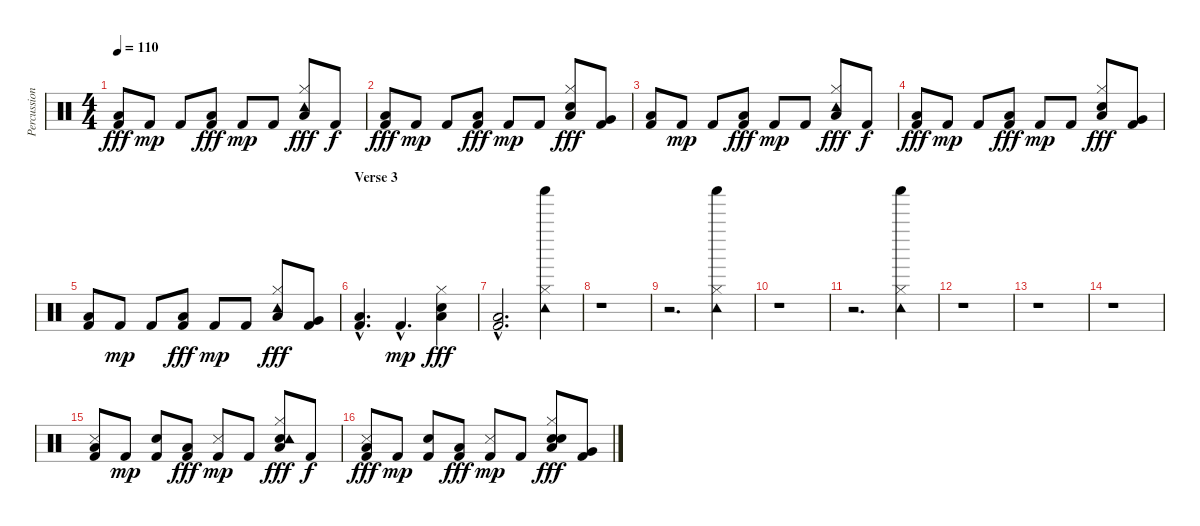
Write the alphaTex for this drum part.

\track ("Percussion" "Percussion") {instrument percussion}
\staff {score}
\articulation defaults
\ts (4 4)
\tempo 110
\clef neutral
\ks c
("Low Floor Tom (hit)" "Kick (hit) 2").8{dy fff} "Kick (hit) 2".8{dy mp} "Kick (hit) 2".8 ("Low Floor Tom (hit)" "Kick (hit) 2").8{dy fff} "Kick (hit) 2".8{dy mp} "Kick (hit) 2".8 ("Hi-Hat (closed)" "Low Floor Tom (hit)" "Tambourine (hit)").8{dy fff} "Kick (hit) 2".8{dy f} |
("Low Floor Tom (hit)" "Kick (hit) 2").8{dy fff} "Kick (hit) 2".8{dy mp} "Kick (hit) 2".8 ("Low Floor Tom (hit)" "Kick (hit) 2").8{dy fff} "Kick (hit) 2".8{dy mp} "Kick (hit) 2".8 ("Hi-Hat (closed)" "Low Floor Tom (hit)" "Snare (hit) 2").8{dy fff} ("Very Low Tom (hit)" "Kick (hit) 2").8 |
("Low Floor Tom (hit)" "Kick (hit) 2").8 "Kick (hit) 2".8{dy mp} "Kick (hit) 2".8 ("Low Floor Tom (hit)" "Kick (hit) 2").8{dy fff} "Kick (hit) 2".8{dy mp} "Kick (hit) 2".8 ("Hi-Hat (closed)" "Low Floor Tom (hit)" "Tambourine (hit)").8{dy fff} "Kick (hit) 2".8{dy f} |
("Low Floor Tom (hit)" "Kick (hit) 2").8{dy fff} "Kick (hit) 2".8{dy mp} "Kick (hit) 2".8 ("Low Floor Tom (hit)" "Kick (hit) 2").8{dy fff} "Kick (hit) 2".8{dy mp} "Kick (hit) 2".8 ("Hi-Hat (closed)" "Low Floor Tom (hit)" "Snare (hit) 2").8{dy fff} ("Very Low Tom (hit)" "Kick (hit) 2").8 |
("Low Floor Tom (hit)" "Kick (hit) 2").8 "Kick (hit) 2".8{dy mp} "Kick (hit) 2".8 ("Low Floor Tom (hit)" "Kick (hit) 2").8{dy fff} "Kick (hit) 2".8{dy mp} "Kick (hit) 2".8 ("Hi-Hat (closed)" "Low Floor Tom (hit)" "Tambourine (hit)").8{dy fff} ("Very Low Tom (hit)" "Kick (hit) 2").8 |
\section ("" "Verse 3")
("Low Floor Tom (hit)"{hac} "Kick (hit) 2"{hac}).4{d} "Kick (hit) 2"{hac}.4{d dy mp} ("Hi-Hat (closed)" "Low Floor Tom (hit)" "Snare (hit) 2").4{dy fff} |
("Low Floor Tom (hit)"{hac} "Kick (hit) 2"{hac}).2{d} ("Shaker (hit)" "Hi-Hat (closed)" "Tambourine (hit)").4 |
r.1 |
r.2{d} ("Shaker (hit)" "Hi-Hat (closed)" "Tambourine (hit)").4 |
r.1 |
r.2{d} ("Shaker (hit)" "Hi-Hat (closed)" "Tambourine (hit)").4 |
r.1 |
r.1 |
r.1 |
("Snare (side stick) 3" "Low Floor Tom (hit)" "Kick (hit) 2").8 "Kick (hit) 2".8{dy mp} ("Electric Snare (hit)" "Kick (hit) 2").8 ("Low Floor Tom (hit)" "Kick (hit) 2").8{dy fff} ("Snare (side stick) 3" "Kick (hit) 2").8{dy mp} "Kick (hit) 2".8 ("Electric Snare (hit)" "Hi-Hat (closed)" "Low Floor Tom (hit)" "Tambourine (hit)").8{dy fff} "Kick (hit) 2".8{dy f} |
("Snare (side stick) 3" "Low Floor Tom (hit)" "Kick (hit) 2").8{dy fff} "Kick (hit) 2".8{dy mp} ("Electric Snare (hit)" "Kick (hit) 2").8 ("Low Floor Tom (hit)" "Kick (hit) 2").8{dy fff} ("Snare (side stick) 3" "Kick (hit) 2").8{dy mp} "Kick (hit) 2".8 ("Electric Snare (hit)" "Hi-Hat (closed)" "Low Floor Tom (hit)" "Snare (hit) 2").8{dy fff} ("Very Low Tom (hit)" "Kick (hit) 2").8
